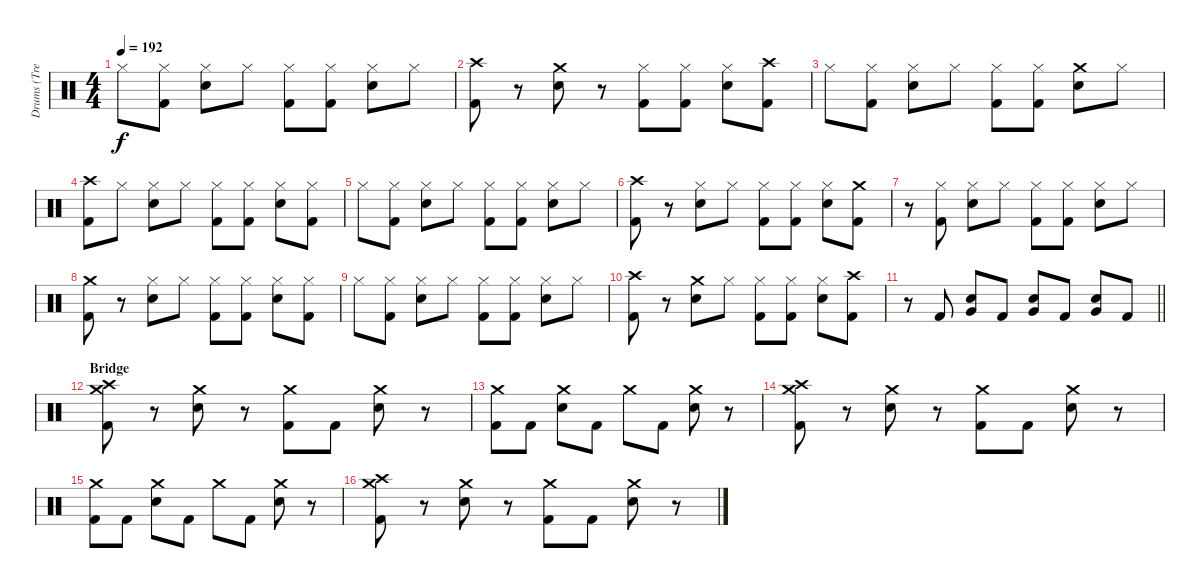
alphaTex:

\track ("Drums (Tre Cool)" "Drums (Tre") {instrument percussion}
\staff {score}
\articulation defaults
\ts (4 4)
\tempo 192
\clef neutral
\ks c "Hi-Hat (closed)".8{dy f}
("Hi-Hat (closed)" "Kick (hit) 2").8 ("Hi-Hat (closed)" "Snare (hit) 2").8 "Hi-Hat (closed)".8 ("Hi-Hat (closed)" "Kick (hit) 2").8 ("Hi-Hat (closed)" "Kick (hit) 2").8 ("Hi-Hat (closed)" "Snare (hit) 2").8 "Hi-Hat (closed)".8 |
("Crash high (hit)" "Kick (hit) 2").8 r.8 ("Crash medium (hit)" "Snare (hit) 2").8 r.8 ("Hi-Hat (closed)" "Kick (hit) 2").8 ("Hi-Hat (closed)" "Kick (hit) 2").8 ("Hi-Hat (closed)" "Snare (hit) 2").8 ("Crash high (hit)" "Kick (hit) 2").8 |
"Hi-Hat (closed)".8 ("Hi-Hat (closed)" "Kick (hit) 2").8 ("Hi-Hat (closed)" "Snare (hit) 2").8 "Hi-Hat (closed)".8 ("Hi-Hat (closed)" "Kick (hit) 2").8 ("Hi-Hat (closed)" "Kick (hit) 2").8 ("Crash medium (hit)" "Snare (hit) 2").8 "Hi-Hat (closed)".8 |
("Crash high (hit)" "Kick (hit) 2").8 "Hi-Hat (closed)".8 ("Hi-Hat (closed)" "Snare (hit) 2").8 "Hi-Hat (closed)".8 ("Hi-Hat (closed)" "Kick (hit) 2").8 ("Hi-Hat (closed)" "Kick (hit) 2").8 ("Hi-Hat (closed)" "Snare (hit) 2").8 ("Hi-Hat (closed)" "Kick (hit) 2").8 |
"Hi-Hat (closed)".8 ("Hi-Hat (closed)" "Kick (hit) 2").8 ("Hi-Hat (closed)" "Snare (hit) 2").8 "Hi-Hat (closed)".8 ("Hi-Hat (closed)" "Kick (hit) 2").8 ("Hi-Hat (closed)" "Kick (hit) 2").8 ("Hi-Hat (closed)" "Snare (hit) 2").8 "Hi-Hat (closed)".8 |
("Crash high (hit)" "Kick (hit) 2").8 r.8 ("Hi-Hat (closed)" "Snare (hit) 2").8 "Hi-Hat (closed)".8 ("Hi-Hat (closed)" "Kick (hit) 2").8 ("Hi-Hat (closed)" "Kick (hit) 2").8 ("Hi-Hat (closed)" "Snare (hit) 2").8 ("Crash medium (hit)" "Kick (hit) 2").8 |
r.8 ("Hi-Hat (closed)" "Kick (hit) 2").8 ("Hi-Hat (closed)" "Snare (hit) 2").8 "Hi-Hat (closed)".8 ("Hi-Hat (closed)" "Kick (hit) 2").8 ("Hi-Hat (closed)" "Kick (hit) 2").8 ("Hi-Hat (closed)" "Snare (hit) 2").8 "Hi-Hat (closed)".8 |
("Crash medium (hit)" "Kick (hit) 2").8 r.8 ("Hi-Hat (closed)" "Snare (hit) 2").8 "Hi-Hat (closed)".8 ("Hi-Hat (closed)" "Kick (hit) 2").8 ("Hi-Hat (closed)" "Kick (hit) 2").8 ("Hi-Hat (closed)" "Snare (hit) 2").8 ("Hi-Hat (closed)" "Kick (hit) 2").8 |
"Hi-Hat (closed)".8 ("Hi-Hat (closed)" "Kick (hit) 2").8 ("Hi-Hat (closed)" "Snare (hit) 2").8 "Hi-Hat (closed)".8 ("Hi-Hat (closed)" "Kick (hit) 2").8 ("Hi-Hat (closed)" "Kick (hit) 2").8 ("Hi-Hat (closed)" "Snare (hit) 2").8 "Hi-Hat (closed)".8 |
("Crash high (hit)" "Kick (hit) 2").8 r.8 ("Crash medium (hit)" "Snare (hit) 2").8 "Hi-Hat (closed)".8 ("Hi-Hat (closed)" "Kick (hit) 2").8 ("Hi-Hat (closed)" "Kick (hit) 2").8 ("Hi-Hat (closed)" "Snare (hit) 2").8 ("Crash high (hit)" "Kick (hit) 2").8 |
\barLineRight lightlight
r.8 "Kick (hit) 2".8 ("Snare (hit) 2" "Very Low Tom (hit)").8 "Kick (hit) 2".8 ("Snare (hit) 2" "Very Low Tom (hit)").8 "Kick (hit) 2".8 ("Snare (hit) 2" "Very Low Tom (hit)").8 "Kick (hit) 2".8 |
\section ("" "Bridge")
("Crash high (hit)" "Crash medium (hit)" "Kick (hit) 2").8 r.8 ("Crash medium (hit)" "Snare (hit) 2").8 r.8 ("Crash medium (hit)" "Kick (hit) 2").8 "Kick (hit) 2".8 ("Crash medium (hit)" "Snare (hit) 2").8 r.8 |
("Crash medium (hit)" "Kick (hit) 2").8 "Kick (hit) 2".8 ("Crash medium (hit)" "Snare (hit) 2").8 "Kick (hit) 2".8 "Crash medium (hit)".8 "Kick (hit) 2".8 ("Crash medium (hit)" "Snare (hit) 2").8 r.8 |
("Crash high (hit)" "Crash medium (hit)" "Kick (hit) 2").8 r.8 ("Crash medium (hit)" "Snare (hit) 2").8 r.8 ("Crash medium (hit)" "Kick (hit) 2").8 "Kick (hit) 2".8 ("Crash medium (hit)" "Snare (hit) 2").8 r.8 |
("Crash medium (hit)" "Kick (hit) 2").8 "Kick (hit) 2".8 ("Crash medium (hit)" "Snare (hit) 2").8 "Kick (hit) 2".8 "Crash medium (hit)".8 "Kick (hit) 2".8 ("Crash medium (hit)" "Snare (hit) 2").8 r.8 |
("Crash high (hit)" "Crash medium (hit)" "Kick (hit) 2").8 r.8 ("Crash medium (hit)" "Snare (hit) 2").8 r.8 ("Crash medium (hit)" "Kick (hit) 2").8 "Kick (hit) 2".8 ("Crash medium (hit)" "Snare (hit) 2").8 r.8
